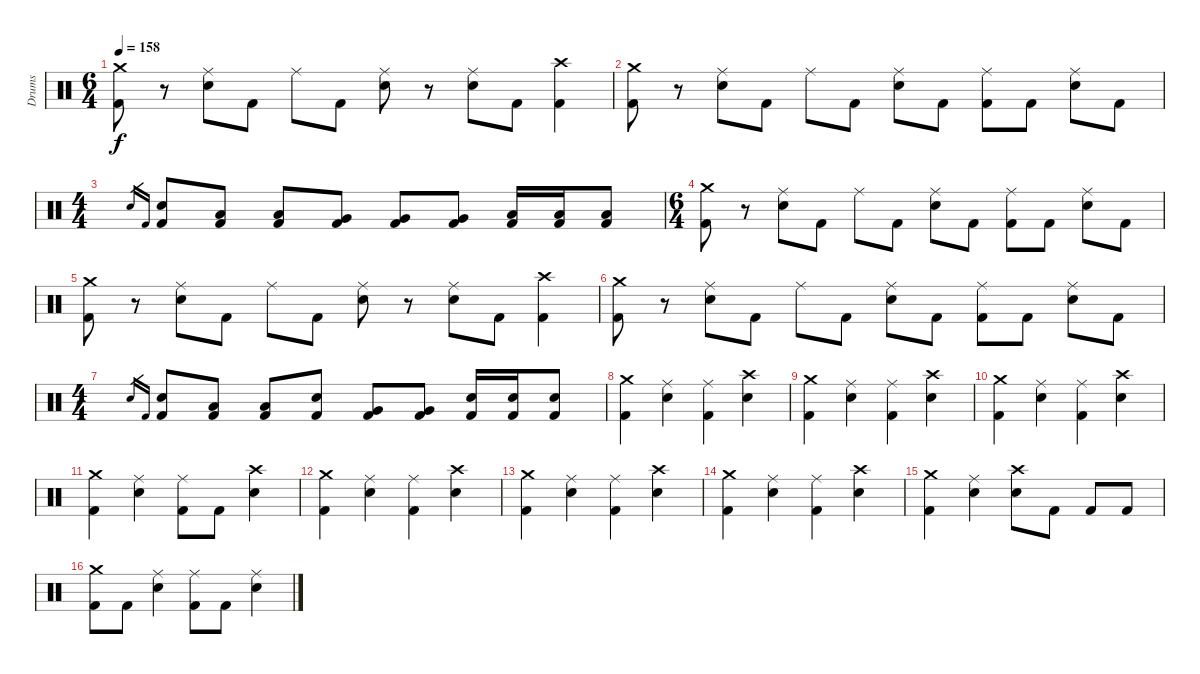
\track ("Drums" "Drums") {instrument percussion}
\staff {score}
\articulation defaults
\ts (6 4)
\tempo 158
\clef neutral
\ks c
("Crash medium (hit)" "Kick (hit) 2").8{dy f} r.8 ("Ride (middle)" "Electric Snare (hit)").8 "Kick (hit) 2".8 "Ride (middle)".8 "Kick (hit) 2".8 ("Ride (middle)" "Electric Snare (hit)").8 r.8 ("Ride (middle)" "Electric Snare (hit)").8 "Kick (hit) 2".8 ("Crash high (hit)" "Kick (hit) 2").4 |
("Crash medium (hit)" "Kick (hit) 2").8 r.8 ("Ride (middle)" "Electric Snare (hit)").8 "Kick (hit) 2".8 "Ride (middle)".8 "Kick (hit) 2".8 ("Ride (middle)" "Electric Snare (hit)").8 "Kick (hit) 2".8 ("Ride (middle)" "Kick (hit) 2").8 "Kick (hit) 2".8 ("Ride (middle)" "Electric Snare (hit)").8 "Kick (hit) 2".8 |
\ts (4 4)
"Electric Snare (hit)".16{gr} "Kick (hit) 2".16{gr} ("Electric Snare (hit)" "Kick (hit) 2").8 ("Low Tom (hit)" "Kick (hit) 2").8 ("Low Tom (hit)" "Kick (hit) 2").8 ("Very Low Tom (hit)" "Kick (hit) 2").8 ("Very Low Tom (hit)" "Kick (hit) 2").8 ("Very Low Tom (hit)" "Kick (hit) 2").8 ("Low Floor Tom (hit)" "Kick (hit) 2").16 ("Low Floor Tom (hit)" "Kick (hit) 2").16 ("Low Floor Tom (hit)" "Kick (hit) 2").8 |
\ts (6 4)
("Crash medium (hit)" "Kick (hit) 2").8 r.8 ("Ride (middle)" "Electric Snare (hit)").8 "Kick (hit) 2".8 "Ride (middle)".8 "Kick (hit) 2".8 ("Ride (middle)" "Electric Snare (hit)").8 "Kick (hit) 2".8 ("Ride (middle)" "Kick (hit) 2").8 "Kick (hit) 2".8 ("Ride (middle)" "Electric Snare (hit)").8 "Kick (hit) 2".8 |
("Crash medium (hit)" "Kick (hit) 2").8 r.8 ("Ride (middle)" "Electric Snare (hit)").8 "Kick (hit) 2".8 "Ride (middle)".8 "Kick (hit) 2".8 ("Ride (middle)" "Electric Snare (hit)").8 r.8 ("Ride (middle)" "Electric Snare (hit)").8 "Kick (hit) 2".8 ("Crash high (hit)" "Kick (hit) 2").4 |
("Crash medium (hit)" "Kick (hit) 2").8 r.8 ("Ride (middle)" "Electric Snare (hit)").8 "Kick (hit) 2".8 "Ride (middle)".8 "Kick (hit) 2".8 ("Ride (middle)" "Electric Snare (hit)").8 "Kick (hit) 2".8 ("Ride (middle)" "Kick (hit) 2").8 "Kick (hit) 2".8 ("Ride (middle)" "Electric Snare (hit)").8 "Kick (hit) 2".8 |
\ts (4 4)
"Electric Snare (hit)".16{gr} "Kick (hit) 2".16{gr} ("Electric Snare (hit)" "Kick (hit) 2").8 ("Low Tom (hit)" "Kick (hit) 2").8 ("Low Tom (hit)" "Kick (hit) 2").8 ("Electric Snare (hit)" "Kick (hit) 2").8 ("Very Low Tom (hit)" "Kick (hit) 2").8 ("Very Low Tom (hit)" "Kick (hit) 2").8 ("Electric Snare (hit)" "Kick (hit) 2").16 ("Electric Snare (hit)" "Kick (hit) 2").16 ("Electric Snare (hit)" "Kick (hit) 2").8 |
\section ("" "")
("Crash medium (hit)" "Kick (hit) 2").4 ("Ride (middle)" "Electric Snare (hit)").4 ("Ride (middle)" "Kick (hit) 2").4 ("Crash high (hit)" "Electric Snare (hit)").4 |
("Crash medium (hit)" "Kick (hit) 2").4 ("Ride (middle)" "Electric Snare (hit)").4 ("Ride (middle)" "Kick (hit) 2").4 ("Crash high (hit)" "Electric Snare (hit)").4 |
("Crash medium (hit)" "Kick (hit) 2").4 ("Ride (middle)" "Electric Snare (hit)").4 ("Ride (middle)" "Kick (hit) 2").4 ("Crash high (hit)" "Electric Snare (hit)").4 |
("Crash medium (hit)" "Kick (hit) 2").4 ("Ride (middle)" "Electric Snare (hit)").4 ("Ride (middle)" "Kick (hit) 2").8 "Kick (hit) 2".8 ("Crash high (hit)" "Electric Snare (hit)").4 |
("Crash medium (hit)" "Kick (hit) 2").4 ("Ride (middle)" "Electric Snare (hit)").4 ("Ride (middle)" "Kick (hit) 2").4 ("Crash high (hit)" "Electric Snare (hit)").4 |
("Crash medium (hit)" "Kick (hit) 2").4 ("Ride (middle)" "Electric Snare (hit)").4 ("Ride (middle)" "Kick (hit) 2").4 ("Crash high (hit)" "Electric Snare (hit)").4 |
("Crash medium (hit)" "Kick (hit) 2").4 ("Ride (middle)" "Electric Snare (hit)").4 ("Ride (middle)" "Kick (hit) 2").4 ("Crash high (hit)" "Electric Snare (hit)").4 |
("Crash medium (hit)" "Kick (hit) 2").4 ("Ride (middle)" "Electric Snare (hit)").4 ("Crash high (hit)" "Electric Snare (hit)").8 "Kick (hit) 2".8 "Kick (hit) 2".8 "Kick (hit) 2".8 |
\section ("" "")
("Crash medium (hit)" "Kick (hit) 2").8 "Kick (hit) 2".8 ("Ride (middle)" "Electric Snare (hit)").4 ("Ride (middle)" "Kick (hit) 2").8 "Kick (hit) 2".8 ("Ride (middle)" "Electric Snare (hit)").4
